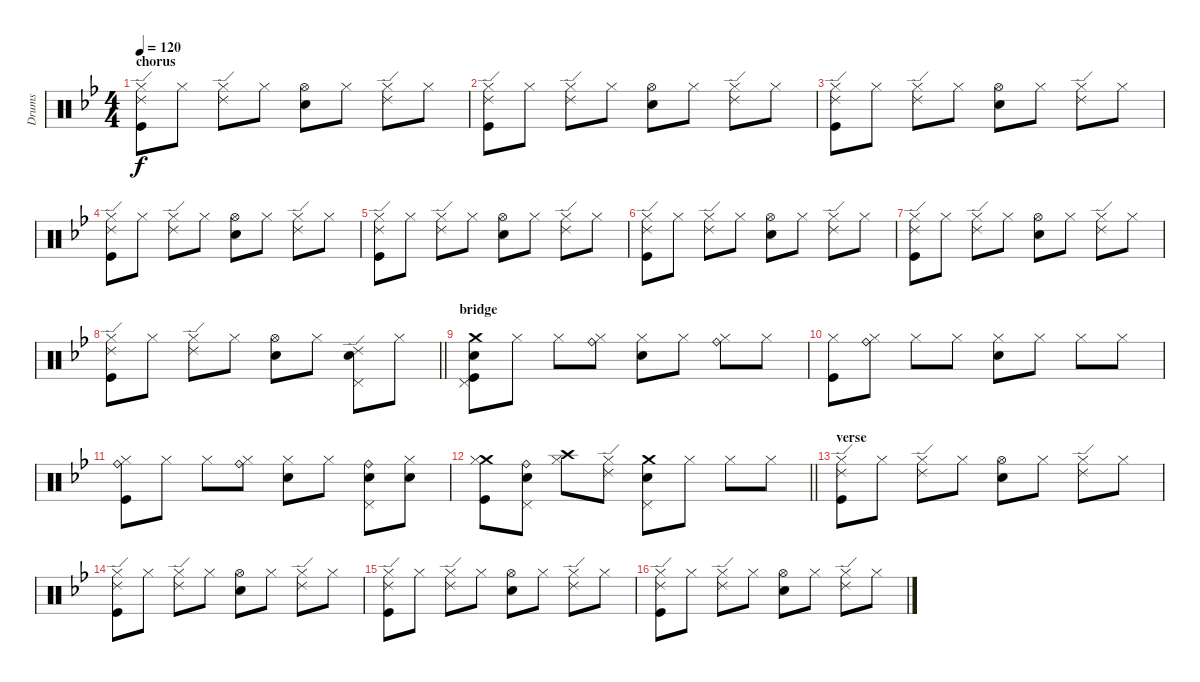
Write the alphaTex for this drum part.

\track ("Drums" "Drums") {instrument percussion}
\staff {score}
\articulation defaults
\ts (4 4)
\section ("" "chorus")
\tempo 120
\clef neutral
\ks gminor
("Hi-Hat (closed)" "Ride (edge) 2" "Kick (hit)").8{dy f} "Hi-Hat (closed)".8 ("Hi-Hat (closed)" "Ride (edge) 2").8 "Hi-Hat (closed)".8 ("Hi-Hat (open)" "Electric Snare (hit)").8 "Hi-Hat (closed)".8 ("Hi-Hat (closed)" "Ride (edge) 2").8 "Hi-Hat (closed)".8 |
("Hi-Hat (closed)" "Ride (edge) 2" "Kick (hit)").8 "Hi-Hat (closed)".8 ("Hi-Hat (closed)" "Ride (edge) 2").8 "Hi-Hat (closed)".8 ("Hi-Hat (open)" "Electric Snare (hit)").8 "Hi-Hat (closed)".8 ("Hi-Hat (closed)" "Ride (edge) 2").8 "Hi-Hat (closed)".8 |
("Hi-Hat (closed)" "Ride (edge) 2" "Kick (hit)").8 "Hi-Hat (closed)".8 ("Hi-Hat (closed)" "Ride (edge) 2").8 "Hi-Hat (closed)".8 ("Hi-Hat (open)" "Electric Snare (hit)").8 "Hi-Hat (closed)".8 ("Hi-Hat (closed)" "Ride (edge) 2").8 "Hi-Hat (closed)".8 |
("Hi-Hat (closed)" "Ride (edge) 2" "Kick (hit)").8 "Hi-Hat (closed)".8 ("Hi-Hat (closed)" "Ride (edge) 2").8 "Hi-Hat (closed)".8 ("Hi-Hat (open)" "Electric Snare (hit)").8 "Hi-Hat (closed)".8 ("Hi-Hat (closed)" "Ride (edge) 2").8 "Hi-Hat (closed)".8 |
("Hi-Hat (closed)" "Ride (edge) 2" "Kick (hit)").8 "Hi-Hat (closed)".8 ("Hi-Hat (closed)" "Ride (edge) 2").8 "Hi-Hat (closed)".8 ("Hi-Hat (open)" "Electric Snare (hit)").8 "Hi-Hat (closed)".8 ("Hi-Hat (closed)" "Ride (edge) 2").8 "Hi-Hat (closed)".8 |
("Hi-Hat (closed)" "Ride (edge) 2" "Kick (hit)").8 "Hi-Hat (closed)".8 ("Hi-Hat (closed)" "Ride (edge) 2").8 "Hi-Hat (closed)".8 ("Hi-Hat (open)" "Electric Snare (hit)").8 "Hi-Hat (closed)".8 ("Hi-Hat (closed)" "Ride (edge) 2").8 "Hi-Hat (closed)".8 |
("Hi-Hat (closed)" "Ride (edge) 2" "Kick (hit)").8 "Hi-Hat (closed)".8 ("Hi-Hat (closed)" "Ride (edge) 2").8 "Hi-Hat (closed)".8 ("Hi-Hat (open)" "Electric Snare (hit)").8 "Hi-Hat (closed)".8 ("Hi-Hat (closed)" "Ride (edge) 2").8 "Hi-Hat (closed)".8 |
\barLineRight lightlight
("Hi-Hat (closed)" "Ride (edge) 2" "Kick (hit)").8 "Hi-Hat (closed)".8 ("Hi-Hat (closed)" "Ride (edge) 2").8 "Hi-Hat (closed)".8 ("Hi-Hat (open)" "Electric Snare (hit)").8 "Hi-Hat (closed)".8 ("Pedal Hi-Hat (hit)" "Ride (edge) 2" "Electric Snare (hit)").8 "Hi-Hat (closed)".8 |
\section ("" "bridge")
("Crash medium (hit)" "Pedal Hi-Hat (hit)" "Electric Snare (hit)" "Kick (hit)").8 "Hi-Hat (closed)".8 "Hi-Hat (closed)".8 ("Ride (bell)" "Hi-Hat (closed)").8 ("Hi-Hat (closed)" "Electric Snare (hit)").8 "Hi-Hat (closed)".8 ("Ride (bell)" "Hi-Hat (closed)").8 "Hi-Hat (closed)".8 |
("Hi-Hat (closed)" "Kick (hit)").8 ("Ride (bell)" "Hi-Hat (closed)").8 "Hi-Hat (closed)".8 "Hi-Hat (closed)".8 ("Hi-Hat (closed)" "Electric Snare (hit)").8 "Hi-Hat (closed)".8 "Hi-Hat (closed)".8 "Hi-Hat (closed)".8 |
("Ride (bell)" "Hi-Hat (closed)" "Kick (hit)").8 "Hi-Hat (closed)".8 "Hi-Hat (closed)".8 ("Ride (bell)" "Hi-Hat (closed)").8 ("Hi-Hat (closed)" "Electric Snare (hit)").8 "Hi-Hat (closed)".8 ("Ride (bell)" "Pedal Hi-Hat (hit)" "Electric Snare (hit)").8 ("Hi-Hat (closed)" "Electric Snare (hit)").8 |
\barLineRight lightlight
("Crash medium (hit)" "Hi-Hat (closed)" "Kick (hit)").8 ("Ride (bell)" "Pedal Hi-Hat (hit)" "Electric Snare (hit)").8 ("Crash high (hit)" "Hi-Hat (closed)").8 ("Ride (edge) 2" "Hi-Hat (closed)").8 ("Crash medium (hit)" "Pedal Hi-Hat (hit)" "Electric Snare (hit)").8 "Hi-Hat (closed)".8 "Hi-Hat (closed)".8 "Hi-Hat (closed)".8 |
\section ("" "verse")
("Hi-Hat (closed)" "Ride (edge) 2" "Kick (hit)").8 "Hi-Hat (closed)".8 ("Hi-Hat (closed)" "Ride (edge) 2").8 "Hi-Hat (closed)".8 ("Hi-Hat (open)" "Electric Snare (hit)").8 "Hi-Hat (closed)".8 ("Hi-Hat (closed)" "Ride (edge) 2").8 "Hi-Hat (closed)".8 |
("Hi-Hat (closed)" "Ride (edge) 2" "Kick (hit)").8 "Hi-Hat (closed)".8 ("Hi-Hat (closed)" "Ride (edge) 2").8 "Hi-Hat (closed)".8 ("Hi-Hat (open)" "Electric Snare (hit)").8 "Hi-Hat (closed)".8 ("Hi-Hat (closed)" "Ride (edge) 2").8 "Hi-Hat (closed)".8 |
("Hi-Hat (closed)" "Ride (edge) 2" "Kick (hit)").8 "Hi-Hat (closed)".8 ("Hi-Hat (closed)" "Ride (edge) 2").8 "Hi-Hat (closed)".8 ("Hi-Hat (open)" "Electric Snare (hit)").8 "Hi-Hat (closed)".8 ("Hi-Hat (closed)" "Ride (edge) 2").8 "Hi-Hat (closed)".8 |
("Hi-Hat (closed)" "Ride (edge) 2" "Kick (hit)").8 "Hi-Hat (closed)".8 ("Hi-Hat (closed)" "Ride (edge) 2").8 "Hi-Hat (closed)".8 ("Hi-Hat (open)" "Electric Snare (hit)").8 "Hi-Hat (closed)".8 ("Hi-Hat (closed)" "Ride (edge) 2").8 "Hi-Hat (closed)".8
